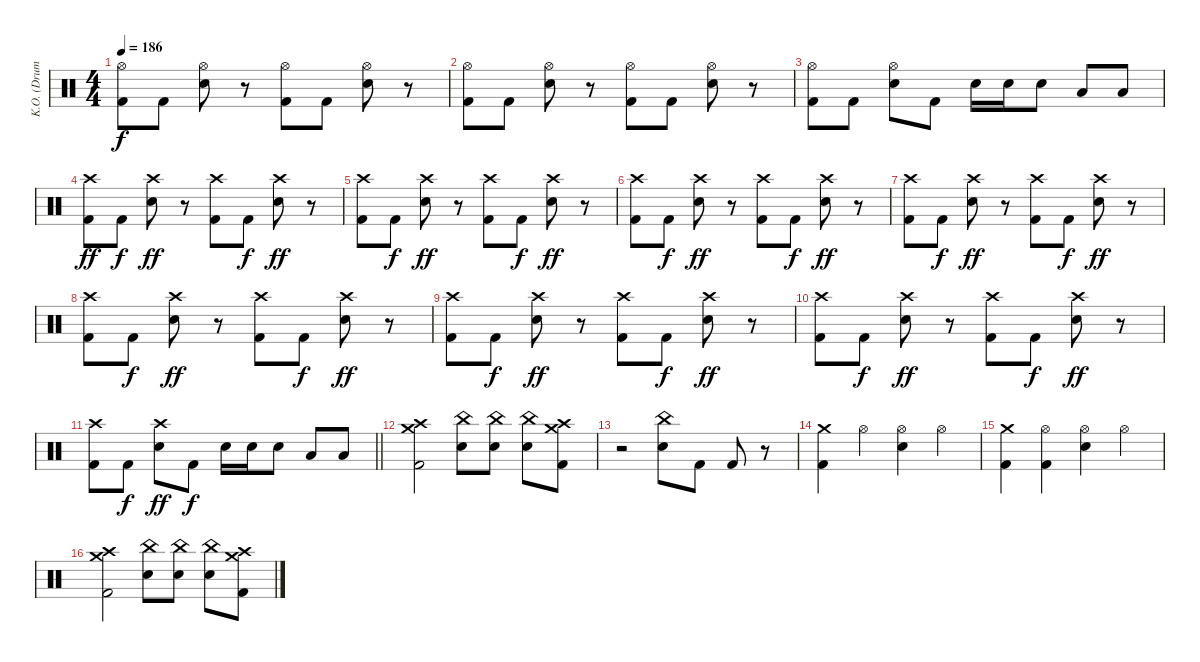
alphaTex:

\track ("K.O. (Drums)" "K.O. (Drum") {instrument percussion}
\staff {score}
\articulation defaults
\ts (4 4)
\tempo 186
\clef neutral
\ks c
("Hi-Hat (open)" "Kick (hit) 2").8{dy f} "Kick (hit) 2".8 ("Hi-Hat (open)" "Electric Snare (hit)").8 r.8 ("Hi-Hat (open)" "Kick (hit) 2").8 "Kick (hit) 2".8 ("Hi-Hat (open)" "Electric Snare (hit)").8 r.8 |
("Hi-Hat (open)" "Kick (hit) 2").8 "Kick (hit) 2".8 ("Hi-Hat (open)" "Electric Snare (hit)").8 r.8 ("Hi-Hat (open)" "Kick (hit) 2").8 "Kick (hit) 2".8 ("Hi-Hat (open)" "Electric Snare (hit)").8 r.8 |
("Hi-Hat (open)" "Kick (hit) 2").8 "Kick (hit) 2".8 ("Hi-Hat (open)" "Electric Snare (hit)").8 "Kick (hit) 2".8 "Electric Snare (hit)".16 "Electric Snare (hit)".16 "Electric Snare (hit)".8 "Low Tom (hit)".8 "Low Tom (hit)".8 |
("Crash high (hit)" "Kick (hit) 2").8{dy ff} "Kick (hit) 2".8{dy f} ("Crash high (hit)" "Electric Snare (hit)").8{dy ff} r.8 ("Crash high (hit)" "Kick (hit) 2").8 "Kick (hit) 2".8{dy f} ("Crash high (hit)" "Electric Snare (hit)").8{dy ff} r.8 |
("Crash high (hit)" "Kick (hit) 2").8 "Kick (hit) 2".8{dy f} ("Crash high (hit)" "Electric Snare (hit)").8{dy ff} r.8 ("Crash high (hit)" "Kick (hit) 2").8 "Kick (hit) 2".8{dy f} ("Crash high (hit)" "Electric Snare (hit)").8{dy ff} r.8 |
("Crash high (hit)" "Kick (hit) 2").8 "Kick (hit) 2".8{dy f} ("Crash high (hit)" "Electric Snare (hit)").8{dy ff} r.8 ("Crash high (hit)" "Kick (hit) 2").8 "Kick (hit) 2".8{dy f} ("Crash high (hit)" "Electric Snare (hit)").8{dy ff} r.8 |
("Crash high (hit)" "Kick (hit) 2").8 "Kick (hit) 2".8{dy f} ("Crash high (hit)" "Electric Snare (hit)").8{dy ff} r.8 ("Crash high (hit)" "Kick (hit) 2").8 "Kick (hit) 2".8{dy f} ("Crash high (hit)" "Electric Snare (hit)").8{dy ff} r.8 |
("Crash high (hit)" "Kick (hit) 2").8 "Kick (hit) 2".8{dy f} ("Crash high (hit)" "Electric Snare (hit)").8{dy ff} r.8 ("Crash high (hit)" "Kick (hit) 2").8 "Kick (hit) 2".8{dy f} ("Crash high (hit)" "Electric Snare (hit)").8{dy ff} r.8 |
("Crash high (hit)" "Kick (hit) 2").8 "Kick (hit) 2".8{dy f} ("Crash high (hit)" "Electric Snare (hit)").8{dy ff} r.8 ("Crash high (hit)" "Kick (hit) 2").8 "Kick (hit) 2".8{dy f} ("Crash high (hit)" "Electric Snare (hit)").8{dy ff} r.8 |
("Crash high (hit)" "Kick (hit) 2").8 "Kick (hit) 2".8{dy f} ("Crash high (hit)" "Electric Snare (hit)").8{dy ff} r.8 ("Crash high (hit)" "Kick (hit) 2").8 "Kick (hit) 2".8{dy f} ("Crash high (hit)" "Electric Snare (hit)").8{dy ff} r.8 |
\barLineRight lightlight
("Crash high (hit)" "Kick (hit) 2").8 "Kick (hit) 2".8{dy f} ("Crash high (hit)" "Electric Snare (hit)").8{dy ff} "Kick (hit) 2".8{dy f} "Electric Snare (hit)".16 "Electric Snare (hit)".16 "Electric Snare (hit)".8 "Low Tom (hit)".8 "Low Tom (hit)".8 |
("Crash medium (hit)" "Crash high (hit)" "Kick (hit) 2").2 ("China (hit)" "Electric Snare (hit)").8 ("China (hit)" "Electric Snare (hit)").8 ("China (hit)" "Electric Snare (hit)").8 ("Crash medium (hit)" "Crash high (hit)" "Kick (hit) 2").8 |
r.2 ("China (hit)" "Electric Snare (hit)").8 "Kick (hit) 2".8 "Kick (hit) 2".8 r.8 |
("Crash medium (hit)" "Kick (hit) 2").4 "Hi-Hat (open)".4 ("Hi-Hat (open)" "Electric Snare (hit)").4 "Hi-Hat (open)".4 |
("Crash medium (hit)" "Kick (hit) 2").4 ("Hi-Hat (open)" "Kick (hit) 2").4 ("Hi-Hat (open)" "Electric Snare (hit)").4 "Hi-Hat (open)".4 |
("Crash medium (hit)" "Crash high (hit)" "Kick (hit) 2").2 ("China (hit)" "Electric Snare (hit)").8 ("China (hit)" "Electric Snare (hit)").8 ("China (hit)" "Electric Snare (hit)").8 ("Crash medium (hit)" "Crash high (hit)" "Kick (hit) 2").8
